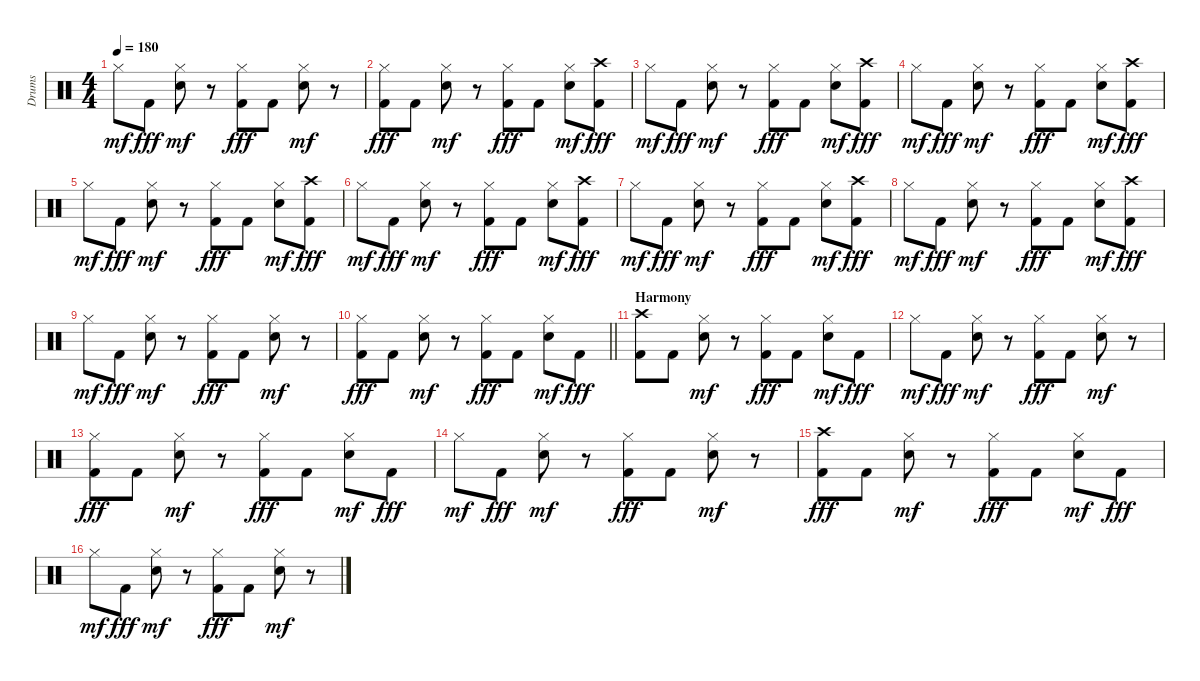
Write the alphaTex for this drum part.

\track ("Drums" "Drums") {instrument percussion}
\staff {score}
\articulation defaults
\ts (4 4)
\tempo 180
\clef neutral
\ks c "Hi-Hat (closed)".8{dy mf} "Kick (hit) 2".8{dy fff}
("Hi-Hat (closed)" "Electric Snare (hit)").8{dy mf} r.8 ("Hi-Hat (closed)" "Kick (hit) 2").8{dy fff} "Kick (hit) 2".8 ("Hi-Hat (closed)" "Electric Snare (hit)").8{dy mf} r.8 |
("Hi-Hat (closed)" "Kick (hit) 2").8{dy fff} "Kick (hit) 2".8 ("Hi-Hat (closed)" "Electric Snare (hit)").8{dy mf} r.8 ("Hi-Hat (closed)" "Kick (hit) 2").8{dy fff} "Kick (hit) 2".8 ("Hi-Hat (closed)" "Electric Snare (hit)").8{dy mf} ("Crash high (hit)" "Kick (hit) 2").8{dy fff} |
"Hi-Hat (closed)".8{dy mf} "Kick (hit) 2".8{dy fff} ("Hi-Hat (closed)" "Electric Snare (hit)").8{dy mf} r.8 ("Hi-Hat (closed)" "Kick (hit) 2").8{dy fff} "Kick (hit) 2".8 ("Hi-Hat (closed)" "Electric Snare (hit)").8{dy mf} ("Crash high (hit)" "Kick (hit) 2").8{dy fff} |
"Hi-Hat (closed)".8{dy mf} "Kick (hit) 2".8{dy fff} ("Hi-Hat (closed)" "Electric Snare (hit)").8{dy mf} r.8 ("Hi-Hat (closed)" "Kick (hit) 2").8{dy fff} "Kick (hit) 2".8 ("Hi-Hat (closed)" "Electric Snare (hit)").8{dy mf} ("Crash high (hit)" "Kick (hit) 2").8{dy fff} |
"Hi-Hat (closed)".8{dy mf} "Kick (hit) 2".8{dy fff} ("Hi-Hat (closed)" "Electric Snare (hit)").8{dy mf} r.8 ("Hi-Hat (closed)" "Kick (hit) 2").8{dy fff} "Kick (hit) 2".8 ("Hi-Hat (closed)" "Electric Snare (hit)").8{dy mf} ("Crash high (hit)" "Kick (hit) 2").8{dy fff} |
"Hi-Hat (closed)".8{dy mf} "Kick (hit) 2".8{dy fff} ("Hi-Hat (closed)" "Electric Snare (hit)").8{dy mf} r.8 ("Hi-Hat (closed)" "Kick (hit) 2").8{dy fff} "Kick (hit) 2".8 ("Hi-Hat (closed)" "Electric Snare (hit)").8{dy mf} ("Crash high (hit)" "Kick (hit) 2").8{dy fff} |
"Hi-Hat (closed)".8{dy mf} "Kick (hit) 2".8{dy fff} ("Hi-Hat (closed)" "Electric Snare (hit)").8{dy mf} r.8 ("Hi-Hat (closed)" "Kick (hit) 2").8{dy fff} "Kick (hit) 2".8 ("Hi-Hat (closed)" "Electric Snare (hit)").8{dy mf} ("Crash high (hit)" "Kick (hit) 2").8{dy fff} |
"Hi-Hat (closed)".8{dy mf} "Kick (hit) 2".8{dy fff} ("Hi-Hat (closed)" "Electric Snare (hit)").8{dy mf} r.8 ("Hi-Hat (closed)" "Kick (hit) 2").8{dy fff} "Kick (hit) 2".8 ("Hi-Hat (closed)" "Electric Snare (hit)").8{dy mf} ("Crash high (hit)" "Kick (hit) 2").8{dy fff} |
"Hi-Hat (closed)".8{dy mf} "Kick (hit) 2".8{dy fff} ("Hi-Hat (closed)" "Electric Snare (hit)").8{dy mf} r.8 ("Hi-Hat (closed)" "Kick (hit) 2").8{dy fff} "Kick (hit) 2".8 ("Hi-Hat (closed)" "Electric Snare (hit)").8{dy mf} r.8 |
\barLineRight lightlight
("Hi-Hat (closed)" "Kick (hit) 2").8{dy fff} "Kick (hit) 2".8 ("Hi-Hat (closed)" "Electric Snare (hit)").8{dy mf} r.8 ("Hi-Hat (closed)" "Kick (hit) 2").8{dy fff} "Kick (hit) 2".8 ("Hi-Hat (closed)" "Electric Snare (hit)").8{dy mf} "Kick (hit) 2".8{dy fff} |
\section ("" "Harmony")
("Crash high (hit)" "Kick (hit) 2").8 "Kick (hit) 2".8 ("Hi-Hat (closed)" "Electric Snare (hit)").8{dy mf} r.8 ("Hi-Hat (closed)" "Kick (hit) 2").8{dy fff} "Kick (hit) 2".8 ("Hi-Hat (closed)" "Electric Snare (hit)").8{dy mf} "Kick (hit) 2".8{dy fff} |
"Hi-Hat (closed)".8{dy mf} "Kick (hit) 2".8{dy fff} ("Hi-Hat (closed)" "Electric Snare (hit)").8{dy mf} r.8 ("Hi-Hat (closed)" "Kick (hit) 2").8{dy fff} "Kick (hit) 2".8 ("Hi-Hat (closed)" "Electric Snare (hit)").8{dy mf} r.8 |
("Hi-Hat (closed)" "Kick (hit) 2").8{dy fff} "Kick (hit) 2".8 ("Hi-Hat (closed)" "Electric Snare (hit)").8{dy mf} r.8 ("Hi-Hat (closed)" "Kick (hit) 2").8{dy fff} "Kick (hit) 2".8 ("Hi-Hat (closed)" "Electric Snare (hit)").8{dy mf} "Kick (hit) 2".8{dy fff} |
"Hi-Hat (closed)".8{dy mf} "Kick (hit) 2".8{dy fff} ("Hi-Hat (closed)" "Electric Snare (hit)").8{dy mf} r.8 ("Hi-Hat (closed)" "Kick (hit) 2").8{dy fff} "Kick (hit) 2".8 ("Hi-Hat (closed)" "Electric Snare (hit)").8{dy mf} r.8 |
("Crash high (hit)" "Kick (hit) 2").8{dy fff} "Kick (hit) 2".8 ("Hi-Hat (closed)" "Electric Snare (hit)").8{dy mf} r.8 ("Hi-Hat (closed)" "Kick (hit) 2").8{dy fff} "Kick (hit) 2".8 ("Hi-Hat (closed)" "Electric Snare (hit)").8{dy mf} "Kick (hit) 2".8{dy fff} |
"Hi-Hat (closed)".8{dy mf} "Kick (hit) 2".8{dy fff} ("Hi-Hat (closed)" "Electric Snare (hit)").8{dy mf} r.8 ("Hi-Hat (closed)" "Kick (hit) 2").8{dy fff} "Kick (hit) 2".8 ("Hi-Hat (closed)" "Electric Snare (hit)").8{dy mf} r.8
